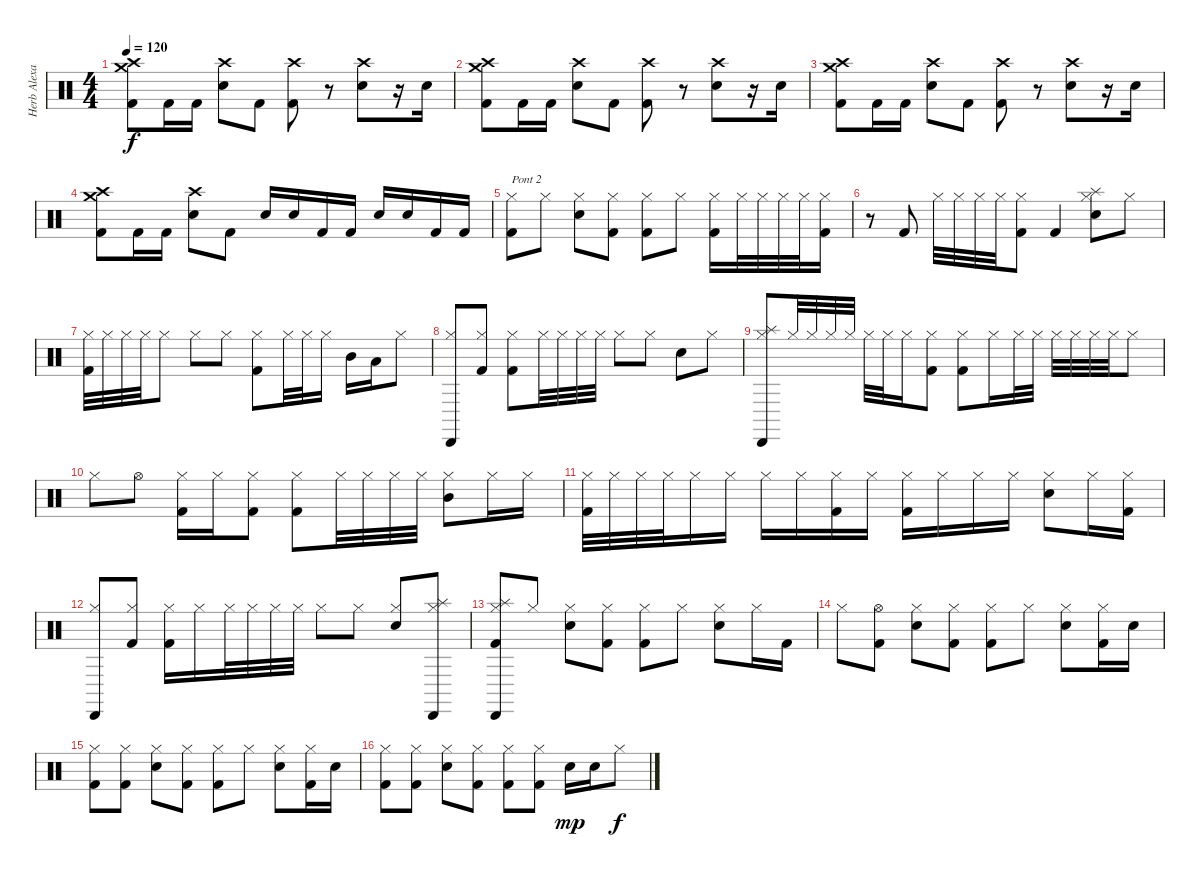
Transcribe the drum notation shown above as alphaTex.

\track ("Herb Alexander" "Herb Alexa") {instrument percussion}
\staff {score}
\articulation defaults
\ts (4 4)
\tempo 120
\clef neutral
\ks c
("Crash medium (hit)" "Crash high (hit)" "Kick (hit) 2").8{dy f} "Kick (hit) 2".16 "Kick (hit) 2".16 ("Crash high (hit)" "Electric Snare (hit)").8 "Kick (hit) 2".8 ("Crash high (hit)" "Kick (hit) 2").8 r.8 ("Crash high (hit)" "Electric Snare (hit)").8 r.16 "Electric Snare (hit)".16 |
("Crash medium (hit)" "Crash high (hit)" "Kick (hit) 2").8 "Kick (hit) 2".16 "Kick (hit) 2".16 ("Crash high (hit)" "Electric Snare (hit)").8 "Kick (hit) 2".8 ("Crash high (hit)" "Kick (hit) 2").8 r.8 ("Crash high (hit)" "Electric Snare (hit)").8 r.16 "Electric Snare (hit)".16 |
("Crash medium (hit)" "Crash high (hit)" "Kick (hit) 2").8 "Kick (hit) 2".16 "Kick (hit) 2".16 ("Crash high (hit)" "Electric Snare (hit)").8 "Kick (hit) 2".8 ("Crash high (hit)" "Kick (hit) 2").8 r.8 ("Crash high (hit)" "Electric Snare (hit)").8 r.16 "Electric Snare (hit)".16 |
("Crash medium (hit)" "Crash high (hit)" "Kick (hit) 2").8 "Kick (hit) 2".16 "Kick (hit) 2".16 ("Crash high (hit)" "Electric Snare (hit)").8 "Kick (hit) 2".8 "Electric Snare (hit)".16 "Electric Snare (hit)".16 "Kick (hit) 2".16 "Kick (hit) 2".16 "Electric Snare (hit)".16 "Electric Snare (hit)".16 "Kick (hit) 2".16 "Kick (hit) 2".16 |
("Hi-Hat (closed)" "Kick (hit) 2").8{txt "Pont 2"} "Hi-Hat (closed)".8 ("Electric Snare (hit)" "Hi-Hat (closed)").8 ("Hi-Hat (closed)" "Kick (hit) 2").8 ("Hi-Hat (closed)" "Kick (hit) 2").8 "Hi-Hat (closed)".8 ("Hi-Hat (closed)" "Kick (hit) 2").16 "Hi-Hat (closed)".32 "Hi-Hat (closed)".32 "Hi-Hat (closed)".32 "Hi-Hat (closed)".32 ("Hi-Hat (closed)" "Kick (hit) 2").16 |
r.8 "Kick (hit) 2".8 "Hi-Hat (closed)".32 "Hi-Hat (closed)".32 "Hi-Hat (closed)".32 "Hi-Hat (closed)".32 ("Hi-Hat (closed)" "Kick (hit) 2").8 "Kick (hit) 2".4 ("Splash (hit)" "Electric Snare (hit)" "Hi-Hat (closed)").8 "Hi-Hat (closed)".8 |
("Hi-Hat (closed)" "Kick (hit) 2").32 "Hi-Hat (closed)".32 "Hi-Hat (closed)".32 "Hi-Hat (closed)".32 "Hi-Hat (closed)".8 "Hi-Hat (closed)".8 "Hi-Hat (closed)".8 ("Hi-Hat (closed)" "Kick (hit) 2").8 "Hi-Hat (closed)".32 "Hi-Hat (closed)".32 "Hi-Hat (closed)".16 "Mid Tom (hit)".16 "Low Tom (hit)".16 "Hi-Hat (closed)".8 |
("Cabasa (hit)" "Hi-Hat (closed)").8 ("Hi-Hat (closed)" "Kick (hit) 2").8 ("Hi-Hat (closed)" "Kick (hit) 2").8 "Hi-Hat (closed)".32 "Hi-Hat (closed)".32 "Hi-Hat (closed)".32 "Hi-Hat (closed)".32 "Hi-Hat (closed)".8 "Hi-Hat (closed)".8 "Electric Snare (hit)".8 "Hi-Hat (closed)".8 |
("Splash (hit)" "Cabasa (hit)" "Hi-Hat (closed)").8 "Hi-Hat (closed)".32 "Hi-Hat (closed)".32 "Hi-Hat (closed)".32 "Hi-Hat (closed)".32 "Hi-Hat (closed)".32 "Hi-Hat (closed)".32 "Hi-Hat (closed)".16 ("Hi-Hat (closed)" "Kick (hit) 2").8 ("Hi-Hat (closed)" "Kick (hit) 2").8 "Hi-Hat (closed)".16 "Hi-Hat (closed)".32 "Hi-Hat (closed)".32 "Hi-Hat (closed)".32 "Hi-Hat (closed)".32 "Hi-Hat (closed)".32 "Hi-Hat (closed)".32 "Hi-Hat (closed)".8 |
"Hi-Hat (closed)".8 "Hi-Hat (open)".8 ("Hi-Hat (closed)" "Kick (hit) 2").16 "Hi-Hat (closed)".16 ("Hi-Hat (closed)" "Kick (hit) 2").8 ("Hi-Hat (closed)" "Kick (hit) 2").8 "Hi-Hat (closed)".32 "Hi-Hat (closed)".32 "Hi-Hat (closed)".32 "Hi-Hat (closed)".32 ("Mid Tom (hit)" "Hi-Hat (closed)").8 "Hi-Hat (closed)".16 "Hi-Hat (closed)".16 |
("Hi-Hat (closed)" "Kick (hit) 2").32 "Hi-Hat (closed)".32 "Hi-Hat (closed)".32 "Hi-Hat (closed)".32 "Hi-Hat (closed)".16 "Hi-Hat (closed)".16 "Hi-Hat (closed)".16 "Hi-Hat (closed)".16 ("Hi-Hat (closed)" "Kick (hit) 2").16 "Hi-Hat (closed)".16 ("Hi-Hat (closed)" "Kick (hit) 2").16 "Hi-Hat (closed)".16 "Hi-Hat (closed)".16 "Hi-Hat (closed)".16 ("Electric Snare (hit)" "Hi-Hat (closed)").8 "Hi-Hat (closed)".16 ("Hi-Hat (closed)" "Kick (hit) 2").16 |
("Cabasa (hit)" "Hi-Hat (closed)").8 ("Hi-Hat (closed)" "Kick (hit) 2").8 ("Hi-Hat (closed)" "Kick (hit) 2").16 "Hi-Hat (closed)".16 "Hi-Hat (closed)".32 "Hi-Hat (closed)".32 "Hi-Hat (closed)".32 "Hi-Hat (closed)".32 "Hi-Hat (closed)".8 "Hi-Hat (closed)".8 ("Electric Snare (hit)" "Hi-Hat (closed)").8 ("Splash (hit)" "Cabasa (hit)" "Hi-Hat (closed)").8 |
("Splash (hit)" "Cabasa (hit)" "Hi-Hat (closed)" "Kick (hit) 2").8 "Hi-Hat (closed)".8 ("Electric Snare (hit)" "Hi-Hat (closed)").8 ("Hi-Hat (closed)" "Kick (hit) 2").8 ("Hi-Hat (closed)" "Kick (hit) 2").8 "Hi-Hat (closed)".8 ("Electric Snare (hit)" "Hi-Hat (closed)").8 "Hi-Hat (closed)".16 "Kick (hit) 2".16 |
"Hi-Hat (closed)".8 ("Hi-Hat (open)" "Kick (hit) 2").8 ("Electric Snare (hit)" "Hi-Hat (closed)").8 ("Hi-Hat (closed)" "Kick (hit) 2").8 ("Hi-Hat (closed)" "Kick (hit) 2").8 "Hi-Hat (closed)".8 ("Electric Snare (hit)" "Hi-Hat (closed)").8 ("Hi-Hat (closed)" "Kick (hit) 2").16 "Electric Snare (hit)".16 |
("Hi-Hat (closed)" "Kick (hit) 2").8 ("Hi-Hat (closed)" "Kick (hit) 2").8 ("Electric Snare (hit)" "Hi-Hat (closed)").8 ("Hi-Hat (closed)" "Kick (hit) 2").8 ("Hi-Hat (closed)" "Kick (hit) 2").8 "Hi-Hat (closed)".8 ("Electric Snare (hit)" "Hi-Hat (closed)").8 ("Hi-Hat (closed)" "Kick (hit) 2").16 "Electric Snare (hit)".16 |
("Hi-Hat (closed)" "Kick (hit) 2").8 ("Hi-Hat (closed)" "Kick (hit) 2").8 ("Electric Snare (hit)" "Hi-Hat (closed)").8 ("Hi-Hat (closed)" "Kick (hit) 2").8 ("Hi-Hat (closed)" "Kick (hit) 2").8 ("Hi-Hat (closed)" "Kick (hit) 2").8 "Electric Snare (hit)".16{dy mp} "Electric Snare (hit)".16 "Hi-Hat (closed)".8{dy f}
